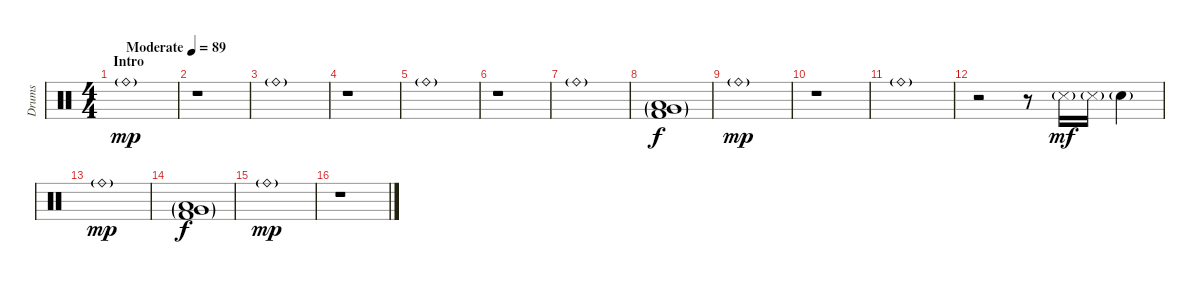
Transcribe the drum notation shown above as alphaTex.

\track ("Drums" "Drums") {instrument percussion}
\staff {score}
\articulation defaults
\ts (4 4)
\section ("" "Intro")
\tempo (89 "Moderate")
\clef neutral
\ks c "Ride (bell)"{g}.1{dy mp}
|
r.1 |
"Ride (bell)"{g}.1 |
r.1 |
"Ride (bell)"{g}.1 |
r.1 |
"Ride (bell)"{g}.1 |
("Very Low Tom (hit)"{g} "Low Floor Tom (hit)"{g} "Kick (hit) 2"{g}).1{dy f} |
"Ride (bell)"{g}.1{dy mp} |
r.1 |
"Ride (bell)"{g}.1 |
r.2 r.8 "Snare (side stick) 3"{g}.16{dy mf} "Snare (side stick) 3"{g}.16 "Hand Clap (hit)"{g}.4 |
"Ride (bell)"{g}.1{dy mp} |
("Very Low Tom (hit)"{g} "Low Floor Tom (hit)"{g} "Kick (hit) 2"{g}).1{dy f} |
"Ride (bell)"{g}.1{dy mp} |
r.1
